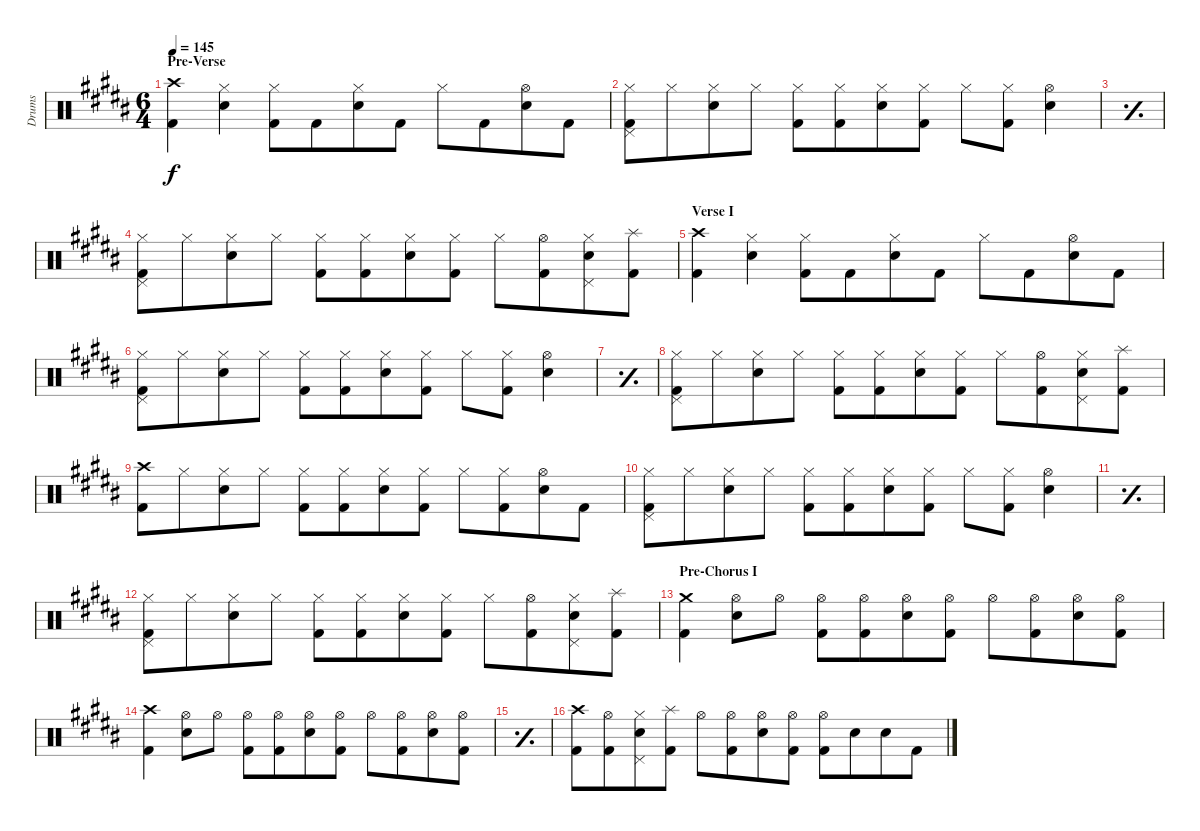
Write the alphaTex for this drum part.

\defaultSystemsLayout 4
\bracketExtendMode groupsimilarinstruments
\otherSystemsTrackNameOrientation horizontal
\track ("Drumkit" "Drums") {multiBarRest instrument percussion}
\staff {score}
\articulation defaults
\ts (6 4)
\beaming (8 4 4 4)
\section ("" "Pre-Verse")
\tempo 145
\clef neutral
\ks b
("Kick (hit) 2"{acc forcenatural} "Crash high (hit)"{acc forcenatural}).4{dy f} ("Hi-Hat (closed)"{acc forcenatural} "Snare (hit) 2"{acc forcenatural}).4 ("Hi-Hat (closed)"{acc forcenatural} "Kick (hit) 2"{acc forcenatural}).8 "Kick (hit) 2"{acc forcenatural}.8 ("Hi-Hat (closed)"{acc forcenatural} "Snare (hit) 2"{acc forcenatural}).8 "Kick (hit) 2"{acc forcenatural}.8 "Hi-Hat (closed)"{acc forcenatural}.8 "Kick (hit) 2"{acc forcenatural}.8 ("Hi-Hat (open)"{acc forcenatural} "Snare (hit) 2"{acc forcenatural}).8 "Kick (hit) 2"{acc forcenatural}.8 |
("Hi-Hat (closed)"{acc forcenatural} "Pedal Hi-Hat (hit)"{acc forcenatural} "Kick (hit) 2"{acc forcenatural}).8 "Hi-Hat (closed)"{acc forcenatural}.8 ("Hi-Hat (closed)"{acc forcenatural} "Snare (hit) 2"{acc forcenatural}).8 "Hi-Hat (closed)"{acc forcenatural}.8 ("Hi-Hat (closed)"{acc forcenatural} "Kick (hit) 2"{acc forcenatural}).8 ("Hi-Hat (closed)"{acc forcenatural} "Kick (hit) 2"{acc forcenatural}).8 ("Hi-Hat (closed)"{acc forcenatural} "Snare (hit) 2"{acc forcenatural}).8 ("Hi-Hat (closed)"{acc forcenatural} "Kick (hit) 2"{acc forcenatural}).8 "Hi-Hat (closed)"{acc forcenatural}.8 ("Hi-Hat (closed)"{acc forcenatural} "Kick (hit) 2"{acc forcenatural}).8 ("Hi-Hat (open)"{acc forcenatural} "Snare (hit) 2"{acc forcenatural}).4 |
\simile simple
|
\simile none
("Hi-Hat (closed)"{acc forcenatural} "Pedal Hi-Hat (hit)"{acc forcenatural} "Kick (hit) 2"{acc forcenatural}).8 "Hi-Hat (closed)"{acc forcenatural}.8 ("Hi-Hat (closed)"{acc forcenatural} "Snare (hit) 2"{acc forcenatural}).8 "Hi-Hat (closed)"{acc forcenatural}.8 ("Hi-Hat (closed)"{acc forcenatural} "Kick (hit) 2"{acc forcenatural}).8 ("Hi-Hat (closed)"{acc forcenatural} "Kick (hit) 2"{acc forcenatural}).8 ("Hi-Hat (closed)"{acc forcenatural} "Snare (hit) 2"{acc forcenatural}).8 ("Hi-Hat (closed)"{acc forcenatural} "Kick (hit) 2"{acc forcenatural}).8 "Hi-Hat (closed)"{acc forcenatural}.8 ("Hi-Hat (open)"{acc forcenatural} "Kick (hit) 2"{acc forcenatural}).8 ("Hi-Hat (closed)"{acc forcenatural} "Snare (hit) 2"{acc forcenatural} "Pedal Hi-Hat (hit)"{acc forcenatural}).8 ("Kick (hit) 2"{acc forcenatural} "Splash (hit)"{acc forcenatural}).8 |
\section ("" "Verse I")
("Kick (hit) 2"{acc forcenatural} "Crash high (hit)"{acc forcenatural}).4 ("Hi-Hat (closed)"{acc forcenatural} "Snare (hit) 2"{acc forcenatural}).4 ("Hi-Hat (closed)"{acc forcenatural} "Kick (hit) 2"{acc forcenatural}).8 "Kick (hit) 2"{acc forcenatural}.8 ("Hi-Hat (closed)"{acc forcenatural} "Snare (hit) 2"{acc forcenatural}).8 "Kick (hit) 2"{acc forcenatural}.8 "Hi-Hat (closed)"{acc forcenatural}.8 "Kick (hit) 2"{acc forcenatural}.8 ("Hi-Hat (open)"{acc forcenatural} "Snare (hit) 2"{acc forcenatural}).8 "Kick (hit) 2"{acc forcenatural}.8 |
("Hi-Hat (closed)"{acc forcenatural} "Pedal Hi-Hat (hit)"{acc forcenatural} "Kick (hit) 2"{acc forcenatural}).8 "Hi-Hat (closed)"{acc forcenatural}.8 ("Hi-Hat (closed)"{acc forcenatural} "Snare (hit) 2"{acc forcenatural}).8 "Hi-Hat (closed)"{acc forcenatural}.8 ("Hi-Hat (closed)"{acc forcenatural} "Kick (hit) 2"{acc forcenatural}).8 ("Hi-Hat (closed)"{acc forcenatural} "Kick (hit) 2"{acc forcenatural}).8 ("Hi-Hat (closed)"{acc forcenatural} "Snare (hit) 2"{acc forcenatural}).8 ("Hi-Hat (closed)"{acc forcenatural} "Kick (hit) 2"{acc forcenatural}).8 "Hi-Hat (closed)"{acc forcenatural}.8 ("Hi-Hat (closed)"{acc forcenatural} "Kick (hit) 2"{acc forcenatural}).8 ("Hi-Hat (open)"{acc forcenatural} "Snare (hit) 2"{acc forcenatural}).4 |
\simile simple
|
\simile none
("Hi-Hat (closed)"{acc forcenatural} "Pedal Hi-Hat (hit)"{acc forcenatural} "Kick (hit) 2"{acc forcenatural}).8 "Hi-Hat (closed)"{acc forcenatural}.8 ("Hi-Hat (closed)"{acc forcenatural} "Snare (hit) 2"{acc forcenatural}).8 "Hi-Hat (closed)"{acc forcenatural}.8 ("Hi-Hat (closed)"{acc forcenatural} "Kick (hit) 2"{acc forcenatural}).8 ("Hi-Hat (closed)"{acc forcenatural} "Kick (hit) 2"{acc forcenatural}).8 ("Hi-Hat (closed)"{acc forcenatural} "Snare (hit) 2"{acc forcenatural}).8 ("Hi-Hat (closed)"{acc forcenatural} "Kick (hit) 2"{acc forcenatural}).8 "Hi-Hat (closed)"{acc forcenatural}.8 ("Hi-Hat (open)"{acc forcenatural} "Kick (hit) 2"{acc forcenatural}).8 ("Hi-Hat (closed)"{acc forcenatural} "Snare (hit) 2"{acc forcenatural} "Pedal Hi-Hat (hit)"{acc forcenatural}).8 ("Kick (hit) 2"{acc forcenatural} "Splash (hit)"{acc forcenatural}).8 |
("Kick (hit) 2"{acc forcenatural} "Crash high (hit)"{acc forcenatural}).8 "Hi-Hat (closed)"{acc forcenatural}.8 ("Hi-Hat (closed)"{acc forcenatural} "Snare (hit) 2"{acc forcenatural}).8 "Hi-Hat (closed)"{acc forcenatural}.8 ("Hi-Hat (closed)"{acc forcenatural} "Kick (hit) 2"{acc forcenatural}).8 ("Kick (hit) 2"{acc forcenatural} "Hi-Hat (closed)"{acc forcenatural}).8 ("Hi-Hat (closed)"{acc forcenatural} "Snare (hit) 2"{acc forcenatural}).8 ("Kick (hit) 2"{acc forcenatural} "Hi-Hat (closed)"{acc forcenatural}).8 "Hi-Hat (closed)"{acc forcenatural}.8 ("Kick (hit) 2"{acc forcenatural} "Hi-Hat (closed)"{acc forcenatural}).8 ("Hi-Hat (open)"{acc forcenatural} "Snare (hit) 2"{acc forcenatural}).8 "Kick (hit) 2"{acc forcenatural}.8 |
("Hi-Hat (closed)"{acc forcenatural} "Pedal Hi-Hat (hit)"{acc forcenatural} "Kick (hit) 2"{acc forcenatural}).8 "Hi-Hat (closed)"{acc forcenatural}.8 ("Hi-Hat (closed)"{acc forcenatural} "Snare (hit) 2"{acc forcenatural}).8 "Hi-Hat (closed)"{acc forcenatural}.8 ("Hi-Hat (closed)"{acc forcenatural} "Kick (hit) 2"{acc forcenatural}).8 ("Hi-Hat (closed)"{acc forcenatural} "Kick (hit) 2"{acc forcenatural}).8 ("Hi-Hat (closed)"{acc forcenatural} "Snare (hit) 2"{acc forcenatural}).8 ("Hi-Hat (closed)"{acc forcenatural} "Kick (hit) 2"{acc forcenatural}).8 "Hi-Hat (closed)"{acc forcenatural}.8 ("Hi-Hat (closed)"{acc forcenatural} "Kick (hit) 2"{acc forcenatural}).8 ("Hi-Hat (open)"{acc forcenatural} "Snare (hit) 2"{acc forcenatural}).4 |
\simile simple
|
\simile none
("Hi-Hat (closed)"{acc forcenatural} "Pedal Hi-Hat (hit)"{acc forcenatural} "Kick (hit) 2"{acc forcenatural}).8 "Hi-Hat (closed)"{acc forcenatural}.8 ("Hi-Hat (closed)"{acc forcenatural} "Snare (hit) 2"{acc forcenatural}).8 "Hi-Hat (closed)"{acc forcenatural}.8 ("Hi-Hat (closed)"{acc forcenatural} "Kick (hit) 2"{acc forcenatural}).8 ("Hi-Hat (closed)"{acc forcenatural} "Kick (hit) 2"{acc forcenatural}).8 ("Hi-Hat (closed)"{acc forcenatural} "Snare (hit) 2"{acc forcenatural}).8 ("Hi-Hat (closed)"{acc forcenatural} "Kick (hit) 2"{acc forcenatural}).8 "Hi-Hat (closed)"{acc forcenatural}.8 ("Hi-Hat (open)"{acc forcenatural} "Kick (hit) 2"{acc forcenatural}).8 ("Hi-Hat (closed)"{acc forcenatural} "Snare (hit) 2"{acc forcenatural} "Pedal Hi-Hat (hit)"{acc forcenatural}).8 ("Kick (hit) 2"{acc forcenatural} "Splash (hit)"{acc forcenatural}).8 |
\section ("" "Pre-Chorus I")
("Kick (hit) 2"{acc forcenatural} "Crash medium (hit)"{acc forcenatural}).4 ("Hi-Hat (open)"{acc forcenatural} "Snare (hit) 2"{acc forcenatural}).8 "Hi-Hat (open)"{acc forcenatural}.8 ("Hi-Hat (open)"{acc forcenatural} "Kick (hit) 2"{acc forcenatural}).8 ("Kick (hit) 2"{acc forcenatural} "Hi-Hat (open)"{acc forcenatural}).8 ("Hi-Hat (open)"{acc forcenatural} "Snare (hit) 2"{acc forcenatural}).8 ("Kick (hit) 2"{acc forcenatural} "Hi-Hat (open)"{acc forcenatural}).8 "Hi-Hat (open)"{acc forcenatural}.8 ("Kick (hit) 2"{acc forcenatural} "Hi-Hat (open)"{acc forcenatural}).8 ("Hi-Hat (open)"{acc forcenatural} "Snare (hit) 2"{acc forcenatural}).8 ("Kick (hit) 2"{acc forcenatural} "Hi-Hat (open)"{acc forcenatural}).8 |
("Kick (hit) 2"{acc forcenatural} "Crash high (hit)"{acc forcenatural}).4 ("Hi-Hat (open)"{acc forcenatural} "Snare (hit) 2"{acc forcenatural}).8 "Hi-Hat (open)"{acc forcenatural}.8 ("Hi-Hat (open)"{acc forcenatural} "Kick (hit) 2"{acc forcenatural}).8 ("Kick (hit) 2"{acc forcenatural} "Hi-Hat (open)"{acc forcenatural}).8 ("Hi-Hat (open)"{acc forcenatural} "Snare (hit) 2"{acc forcenatural}).8 ("Kick (hit) 2"{acc forcenatural} "Hi-Hat (open)"{acc forcenatural}).8 "Hi-Hat (open)"{acc forcenatural}.8 ("Kick (hit) 2"{acc forcenatural} "Hi-Hat (open)"{acc forcenatural}).8 ("Hi-Hat (open)"{acc forcenatural} "Snare (hit) 2"{acc forcenatural}).8 ("Kick (hit) 2"{acc forcenatural} "Hi-Hat (open)"{acc forcenatural}).8 |
\simile simple
|
\simile none
("Kick (hit) 2"{acc forcenatural} "Crash high (hit)"{acc forcenatural}).8 ("Kick (hit) 2"{acc forcenatural} "Hi-Hat (open)"{acc forcenatural}).8 ("Hi-Hat (closed)"{acc forcenatural} "Snare (hit) 2"{acc forcenatural} "Pedal Hi-Hat (hit)"{acc forcenatural}).8 ("Kick (hit) 2"{acc forcenatural} "Splash (hit)"{acc forcenatural}).8 "Hi-Hat (open)"{acc forcenatural}.8 ("Kick (hit) 2"{acc forcenatural} "Hi-Hat (open)"{acc forcenatural}).8 ("Hi-Hat (open)"{acc forcenatural} "Snare (hit) 2"{acc forcenatural}).8 ("Kick (hit) 2"{acc forcenatural} "Hi-Hat (open)"{acc forcenatural}).8 ("Hi-Hat (open)"{acc forcenatural} "Kick (hit) 2"{acc forcenatural}).8 "Snare (hit) 2"{acc forcenatural}.8 "Snare (hit) 2"{acc forcenatural}.8 "Kick (hit) 2"{acc forcenatural}.8
